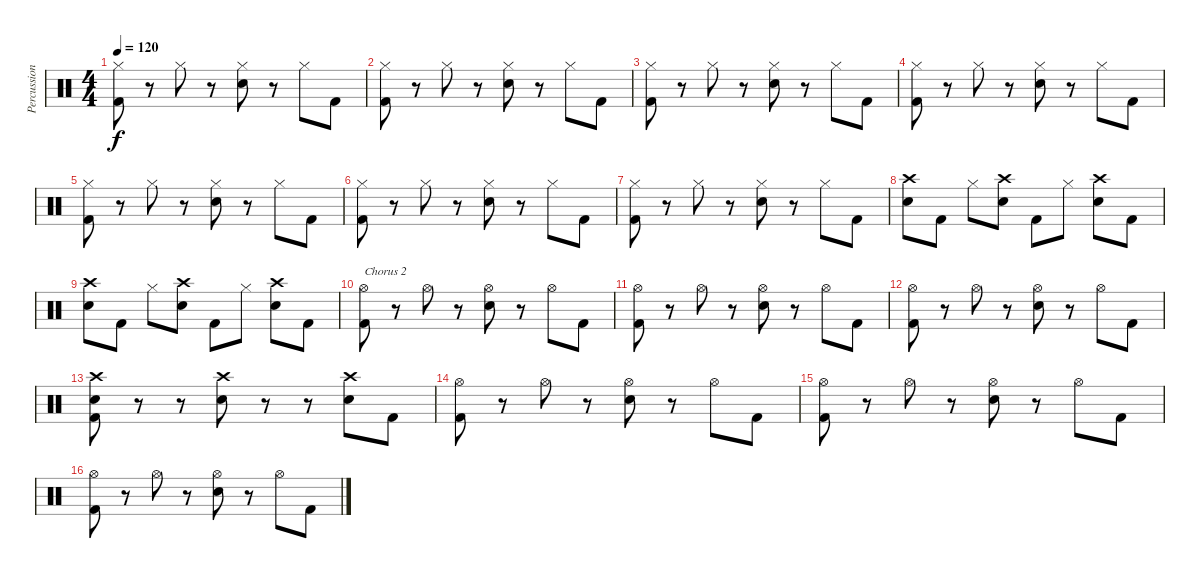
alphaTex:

\track ("Percussion" "Percussion") {instrument percussion}
\staff {score}
\articulation defaults
\ts (4 4)
\tempo 120
\clef neutral
\ks c
("Hi-Hat (closed)" "Kick (hit) 2").8{dy f} r.8 "Hi-Hat (closed)".8 r.8 ("Hi-Hat (closed)" "Snare (hit) 2").8 r.8 "Hi-Hat (closed)".8 "Kick (hit) 2".8 |
("Hi-Hat (closed)" "Kick (hit) 2").8 r.8 "Hi-Hat (closed)".8 r.8 ("Hi-Hat (closed)" "Snare (hit) 2").8 r.8 "Hi-Hat (closed)".8 "Kick (hit) 2".8 |
("Hi-Hat (closed)" "Kick (hit) 2").8 r.8 "Hi-Hat (closed)".8 r.8 ("Hi-Hat (closed)" "Snare (hit) 2").8 r.8 "Hi-Hat (closed)".8 "Kick (hit) 2".8 |
("Hi-Hat (closed)" "Kick (hit) 2").8 r.8 "Hi-Hat (closed)".8 r.8 ("Hi-Hat (closed)" "Snare (hit) 2").8 r.8 "Hi-Hat (closed)".8 "Kick (hit) 2".8 |
("Hi-Hat (closed)" "Kick (hit) 2").8 r.8 "Hi-Hat (closed)".8 r.8 ("Hi-Hat (closed)" "Snare (hit) 2").8 r.8 "Hi-Hat (closed)".8 "Kick (hit) 2".8 |
("Hi-Hat (closed)" "Kick (hit) 2").8 r.8 "Hi-Hat (closed)".8 r.8 ("Hi-Hat (closed)" "Snare (hit) 2").8 r.8 "Hi-Hat (closed)".8 "Kick (hit) 2".8 |
("Hi-Hat (closed)" "Kick (hit) 2").8 r.8 "Hi-Hat (closed)".8 r.8 ("Hi-Hat (closed)" "Snare (hit) 2").8 r.8 "Hi-Hat (closed)".8 "Kick (hit) 2".8 |
("Crash high (hit)" "Snare (hit) 2").8 "Kick (hit) 2".8 "Hi-Hat (closed)".8 ("Crash high (hit)" "Snare (hit) 2").8 "Kick (hit) 2".8 "Hi-Hat (closed)".8 ("Crash high (hit)" "Snare (hit) 2").8 "Kick (hit) 2".8 |
("Crash high (hit)" "Snare (hit) 2").8 "Kick (hit) 2".8 "Hi-Hat (closed)".8 ("Crash high (hit)" "Snare (hit) 2").8 "Kick (hit) 2".8 "Hi-Hat (closed)".8 ("Crash high (hit)" "Snare (hit) 2").8 "Kick (hit) 2".8 |
("Hi-Hat (open)" "Kick (hit) 2").8{txt "Chorus 2"} r.8 "Hi-Hat (open)".8 r.8 ("Hi-Hat (open)" "Snare (hit) 2").8 r.8 "Hi-Hat (open)".8 "Kick (hit) 2".8 |
("Hi-Hat (open)" "Kick (hit) 2").8 r.8 "Hi-Hat (open)".8 r.8 ("Hi-Hat (open)" "Snare (hit) 2").8 r.8 "Hi-Hat (open)".8 "Kick (hit) 2".8 |
("Hi-Hat (open)" "Kick (hit) 2").8 r.8 "Hi-Hat (open)".8 r.8 ("Hi-Hat (open)" "Snare (hit) 2").8 r.8 "Hi-Hat (open)".8 "Kick (hit) 2".8 |
("Crash high (hit)" "Snare (hit) 2" "Kick (hit) 2").8 r.8 r.8 ("Crash high (hit)" "Snare (hit) 2").8 r.8 r.8 ("Crash high (hit)" "Snare (hit) 2").8 "Kick (hit) 2".8 |
("Hi-Hat (open)" "Kick (hit) 2").8 r.8 "Hi-Hat (open)".8 r.8 ("Hi-Hat (open)" "Snare (hit) 2").8 r.8 "Hi-Hat (open)".8 "Kick (hit) 2".8 |
("Hi-Hat (open)" "Kick (hit) 2").8 r.8 "Hi-Hat (open)".8 r.8 ("Hi-Hat (open)" "Snare (hit) 2").8 r.8 "Hi-Hat (open)".8 "Kick (hit) 2".8 |
("Hi-Hat (open)" "Kick (hit) 2").8 r.8 "Hi-Hat (open)".8 r.8 ("Hi-Hat (open)" "Snare (hit) 2").8 r.8 "Hi-Hat (open)".8 "Kick (hit) 2".8
